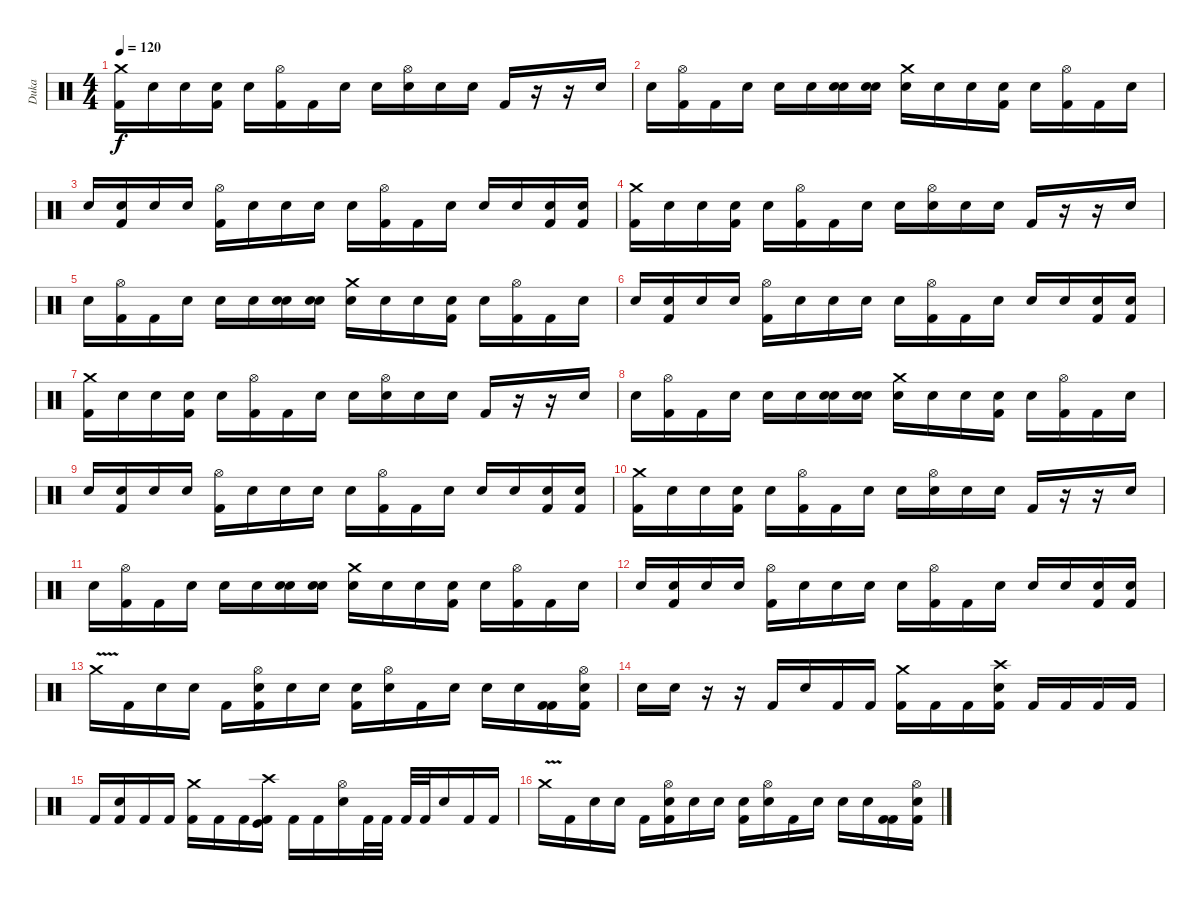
\track ("Duka" "Duka") {instrument percussion}
\staff {score}
\articulation defaults
\ts (4 4)
\tempo 120
\clef neutral
\ks c
("Crash medium (hit)" "Kick (hit) 2").16{dy f} "Snare (hit)".16 "Snare (hit)".16 ("Snare (hit) 2" "Kick (hit) 2").16 "Snare (hit)".16 ("Hi-Hat (open)" "Kick (hit) 2").16 "Kick (hit) 2".16 "Snare (hit)".16 "Snare (hit)".16 ("Hi-Hat (open)" "Snare (hit) 2").16 "Snare (hit)".16 "Snare (hit)".16 "Kick (hit) 2".16 r.16 r.16 "Snare (hit) 2".16 |
"Snare (hit)".16 ("Hi-Hat (open)" "Kick (hit) 2").16 "Kick (hit) 2".16 "Snare (hit)".16 "Snare (hit)".16 "Snare (hit) 2".16 ("Snare (hit) 2" "Snare (hit)").16 ("Snare (hit) 2" "Snare (hit)").16 ("Snare (hit) 2" "Crash medium (hit)").16 "Snare (hit)".16 "Snare (hit)".16 ("Snare (hit) 2" "Kick (hit) 2").16 "Snare (hit)".16 ("Hi-Hat (open)" "Kick (hit) 2").16 "Kick (hit) 2".16 "Snare (hit)".16 |
"Snare (hit)".16 ("Snare (hit) 2" "Kick (hit) 2").16 "Snare (hit)".16 "Snare (hit)".16 ("Kick (hit) 2" "Hi-Hat (open)").16 "Snare (hit)".16 "Snare (hit)".16 "Snare (hit) 2".16 "Snare (hit)".16 ("Hi-Hat (open)" "Kick (hit) 2").16 "Kick (hit) 2".16 "Snare (hit)".16 "Snare (hit)".16 "Snare (hit) 2".16 ("Kick (hit) 2" "Snare (hit)").16 ("Kick (hit) 2" "Snare (hit)").16 |
("Crash medium (hit)" "Kick (hit) 2").16 "Snare (hit)".16 "Snare (hit)".16 ("Snare (hit) 2" "Kick (hit) 2").16 "Snare (hit)".16 ("Hi-Hat (open)" "Kick (hit) 2").16 "Kick (hit) 2".16 "Snare (hit)".16 "Snare (hit)".16 ("Hi-Hat (open)" "Snare (hit) 2").16 "Snare (hit)".16 "Snare (hit)".16 "Kick (hit) 2".16 r.16 r.16 "Snare (hit) 2".16 |
"Snare (hit)".16 ("Hi-Hat (open)" "Kick (hit) 2").16 "Kick (hit) 2".16 "Snare (hit)".16 "Snare (hit)".16 "Snare (hit) 2".16 ("Snare (hit) 2" "Snare (hit)").16 ("Snare (hit) 2" "Snare (hit)").16 ("Snare (hit) 2" "Crash medium (hit)").16 "Snare (hit)".16 "Snare (hit)".16 ("Snare (hit) 2" "Kick (hit) 2").16 "Snare (hit)".16 ("Hi-Hat (open)" "Kick (hit) 2").16 "Kick (hit) 2".16 "Snare (hit)".16 |
"Snare (hit)".16 ("Snare (hit) 2" "Kick (hit) 2").16 "Snare (hit)".16 "Snare (hit)".16 ("Kick (hit) 2" "Hi-Hat (open)").16 "Snare (hit)".16 "Snare (hit)".16 "Snare (hit) 2".16 "Snare (hit)".16 ("Hi-Hat (open)" "Kick (hit) 2").16 "Kick (hit) 2".16 "Snare (hit)".16 "Snare (hit)".16 "Snare (hit) 2".16 ("Kick (hit) 2" "Snare (hit)").16 ("Kick (hit) 2" "Snare (hit)").16 |
("Crash medium (hit)" "Kick (hit) 2").16 "Snare (hit)".16 "Snare (hit)".16 ("Snare (hit) 2" "Kick (hit) 2").16 "Snare (hit)".16 ("Hi-Hat (open)" "Kick (hit) 2").16 "Kick (hit) 2".16 "Snare (hit)".16 "Snare (hit)".16 ("Hi-Hat (open)" "Snare (hit) 2").16 "Snare (hit)".16 "Snare (hit)".16 "Kick (hit) 2".16 r.16 r.16 "Snare (hit) 2".16 |
"Snare (hit)".16 ("Hi-Hat (open)" "Kick (hit) 2").16 "Kick (hit) 2".16 "Snare (hit)".16 "Snare (hit)".16 "Snare (hit) 2".16 ("Snare (hit) 2" "Snare (hit)").16 ("Snare (hit) 2" "Snare (hit)").16 ("Snare (hit) 2" "Crash medium (hit)").16 "Snare (hit)".16 "Snare (hit)".16 ("Snare (hit) 2" "Kick (hit) 2").16 "Snare (hit)".16 ("Hi-Hat (open)" "Kick (hit) 2").16 "Kick (hit) 2".16 "Snare (hit)".16 |
"Snare (hit)".16 ("Snare (hit) 2" "Kick (hit) 2").16 "Snare (hit)".16 "Snare (hit)".16 ("Kick (hit) 2" "Hi-Hat (open)").16 "Snare (hit)".16 "Snare (hit)".16 "Snare (hit) 2".16 "Snare (hit)".16 ("Hi-Hat (open)" "Kick (hit) 2").16 "Kick (hit) 2".16 "Snare (hit)".16 "Snare (hit)".16 "Snare (hit) 2".16 ("Kick (hit) 2" "Snare (hit)").16 ("Kick (hit) 2" "Snare (hit)").16 |
("Crash medium (hit)" "Kick (hit) 2").16 "Snare (hit)".16 "Snare (hit)".16 ("Snare (hit) 2" "Kick (hit) 2").16 "Snare (hit)".16 ("Hi-Hat (open)" "Kick (hit) 2").16 "Kick (hit) 2".16 "Snare (hit)".16 "Snare (hit)".16 ("Hi-Hat (open)" "Snare (hit) 2").16 "Snare (hit)".16 "Snare (hit)".16 "Kick (hit) 2".16 r.16 r.16 "Snare (hit) 2".16 |
"Snare (hit)".16 ("Hi-Hat (open)" "Kick (hit) 2").16 "Kick (hit) 2".16 "Snare (hit)".16 "Snare (hit)".16 "Snare (hit) 2".16 ("Snare (hit) 2" "Snare (hit)").16 ("Snare (hit) 2" "Snare (hit)").16 ("Snare (hit) 2" "Crash medium (hit)").16 "Snare (hit)".16 "Snare (hit)".16 ("Snare (hit) 2" "Kick (hit) 2").16 "Snare (hit)".16 ("Hi-Hat (open)" "Kick (hit) 2").16 "Kick (hit) 2".16 "Snare (hit)".16 |
"Snare (hit)".16 ("Snare (hit) 2" "Kick (hit) 2").16 "Snare (hit)".16 "Snare (hit)".16 ("Kick (hit) 2" "Hi-Hat (open)").16 "Snare (hit)".16 "Snare (hit)".16 "Snare (hit) 2".16 "Snare (hit)".16 ("Hi-Hat (open)" "Kick (hit) 2").16 "Kick (hit) 2".16 "Snare (hit)".16 "Snare (hit)".16 "Snare (hit) 2".16 ("Kick (hit) 2" "Snare (hit)").16 ("Kick (hit) 2" "Snare (hit)").16 |
"Crash medium (hit)"{v}.16 "Kick (hit) 2".16 "Snare (hit)".16 "Snare (hit) 2".16 "Kick (hit) 2".16 ("Hi-Hat (open)" "Snare (hit)" "Kick (hit) 2").16 "Snare (hit)".16 "Snare (hit)".16 ("Snare (hit)" "Kick (hit) 2").16 ("Hi-Hat (open)" "Snare (hit) 2").16 "Kick (hit) 2".16 "Snare (hit)".16 "Snare (hit)".16 "Snare (hit)".16 ("Kick (hit) 2" "Kick (hit) 2").16 ("Hi-Hat (open)" "Snare (hit) 2" "Kick (hit) 2").16 |
"Snare (hit)".16 "Snare (hit)".16 r.16 r.16 "Kick (hit) 2".16 "Snare (hit) 2".16 "Kick (hit) 2".16 "Kick (hit) 2".16 ("Kick (hit) 2" "Crash medium (hit)").16 "Kick (hit) 2".16 "Kick (hit) 2".16 ("Crash high (hit)" "Snare (hit) 2" "Kick (hit) 2").16 "Kick (hit) 2".16 "Kick (hit) 2".16 "Kick (hit) 2".16 "Kick (hit) 2".16 |
"Kick (hit) 2".16 ("Snare (hit) 2" "Kick (hit) 2").16 "Kick (hit) 2".16 "Kick (hit) 2".16 ("Crash medium (hit)" "Kick (hit) 2").16 "Kick (hit) 2".16 "Kick (hit) 2".16 ("Crash high (hit)" "Kick (hit)" "Kick (hit) 2").16 "Kick (hit) 2".16 "Kick (hit) 2".16 ("Hi-Hat (open)" "Snare (hit) 2").16 "Kick (hit) 2".32 "Kick (hit) 2".32 "Kick (hit) 2".32 "Kick (hit) 2".32 "Snare (hit) 2".16 "Kick (hit) 2".16 "Kick (hit) 2".16 |
"Crash medium (hit)"{v}.16 "Kick (hit) 2".16 "Snare (hit)".16 "Snare (hit) 2".16 "Kick (hit) 2".16 ("Hi-Hat (open)" "Snare (hit)" "Kick (hit) 2").16 "Snare (hit)".16 "Snare (hit)".16 ("Snare (hit)" "Kick (hit) 2").16 ("Hi-Hat (open)" "Snare (hit) 2").16 "Kick (hit) 2".16 "Snare (hit)".16 "Snare (hit)".16 "Snare (hit)".16 ("Kick (hit) 2" "Kick (hit) 2").16 ("Hi-Hat (open)" "Snare (hit) 2" "Kick (hit) 2").16
